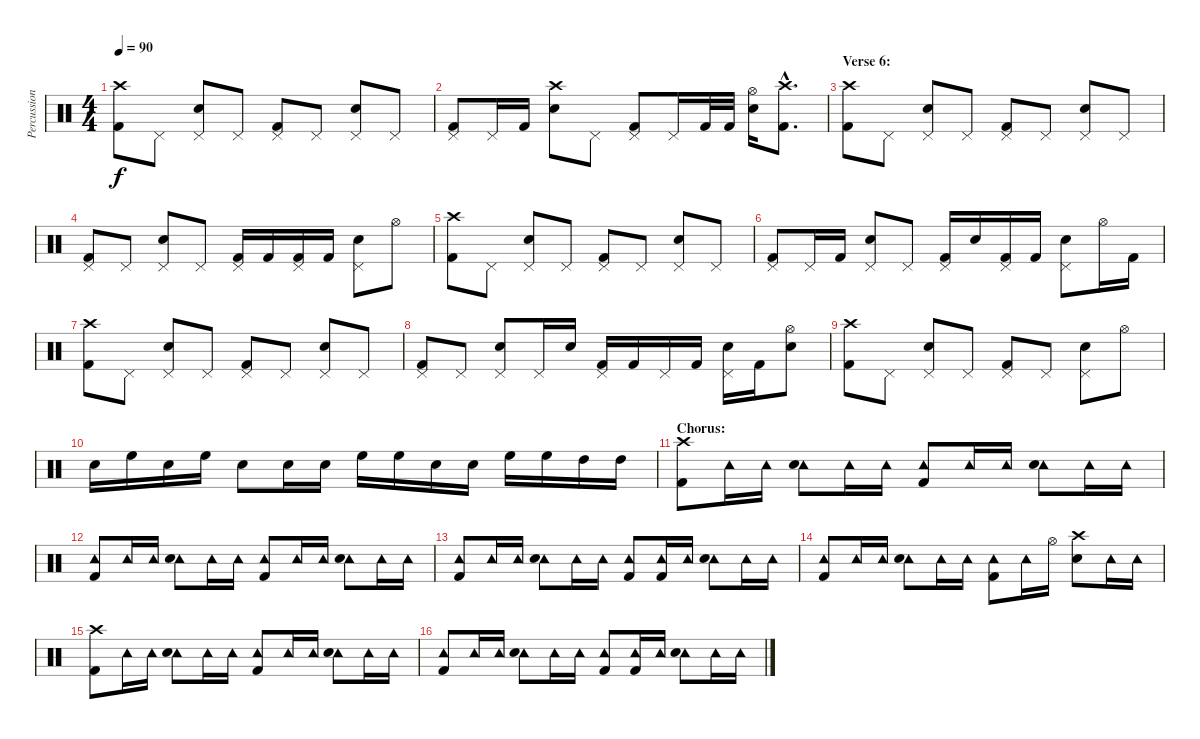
\track ("Percussion" "Percussion") {instrument percussion}
\staff {score}
\articulation defaults
\ts (4 4)
\tempo 90
\clef neutral
\ks c
("Crash high (hit)" "Kick (hit) 2").8{dy f} "Pedal Hi-Hat (hit)".8 ("Pedal Hi-Hat (hit)" "Electric Snare (hit)").8 "Pedal Hi-Hat (hit)".8 ("Pedal Hi-Hat (hit)" "Kick (hit) 2").8 "Pedal Hi-Hat (hit)".8 ("Pedal Hi-Hat (hit)" "Electric Snare (hit)").8 "Pedal Hi-Hat (hit)".8 |
("Pedal Hi-Hat (hit)" "Kick (hit) 2").8 "Pedal Hi-Hat (hit)".16 "Kick (hit) 2".16 ("Crash high (hit)" "Electric Snare (hit)").8 "Pedal Hi-Hat (hit)".8 ("Pedal Hi-Hat (hit)" "Kick (hit) 2").8 "Pedal Hi-Hat (hit)".16 "Kick (hit) 2".32 "Kick (hit) 2".32 ("Hi-Hat (open)" "Electric Snare (hit)").16 ("Crash high (hit)"{hac} "Kick (hit) 2"{hac}).8{d} |
\section ("" "Verse 6:")
("Crash high (hit)" "Kick (hit) 2").8 "Pedal Hi-Hat (hit)".8 ("Pedal Hi-Hat (hit)" "Electric Snare (hit)").8 "Pedal Hi-Hat (hit)".8 ("Pedal Hi-Hat (hit)" "Kick (hit) 2").8 "Pedal Hi-Hat (hit)".8 ("Pedal Hi-Hat (hit)" "Electric Snare (hit)").8 "Pedal Hi-Hat (hit)".8 |
("Pedal Hi-Hat (hit)" "Kick (hit) 2").8 "Pedal Hi-Hat (hit)".8 ("Pedal Hi-Hat (hit)" "Electric Snare (hit)").8 "Pedal Hi-Hat (hit)".8 ("Pedal Hi-Hat (hit)" "Kick (hit) 2").16 "Kick (hit) 2".16 ("Pedal Hi-Hat (hit)" "Kick (hit) 2").16 "Kick (hit) 2".16 ("Pedal Hi-Hat (hit)" "Electric Snare (hit)").8 "Hi-Hat (open)".8 |
("Crash high (hit)" "Kick (hit) 2").8 "Pedal Hi-Hat (hit)".8 ("Pedal Hi-Hat (hit)" "Electric Snare (hit)").8 "Pedal Hi-Hat (hit)".8 ("Pedal Hi-Hat (hit)" "Kick (hit) 2").8 "Pedal Hi-Hat (hit)".8 ("Pedal Hi-Hat (hit)" "Electric Snare (hit)").8 "Pedal Hi-Hat (hit)".8 |
("Pedal Hi-Hat (hit)" "Kick (hit) 2").8 "Pedal Hi-Hat (hit)".16 "Kick (hit) 2".16 ("Pedal Hi-Hat (hit)" "Electric Snare (hit)").8 "Pedal Hi-Hat (hit)".8 ("Pedal Hi-Hat (hit)" "Kick (hit) 2").16 "Electric Snare (hit)".16 ("Pedal Hi-Hat (hit)" "Kick (hit) 2").16 "Kick (hit) 2".16 ("Pedal Hi-Hat (hit)" "Electric Snare (hit)").8 "Hi-Hat (open)".16 "Kick (hit) 2".16 |
("Crash high (hit)" "Kick (hit) 2").8 "Pedal Hi-Hat (hit)".8 ("Pedal Hi-Hat (hit)" "Electric Snare (hit)").8 "Pedal Hi-Hat (hit)".8 ("Pedal Hi-Hat (hit)" "Kick (hit) 2").8 "Pedal Hi-Hat (hit)".8 ("Pedal Hi-Hat (hit)" "Electric Snare (hit)").8 "Pedal Hi-Hat (hit)".8 |
("Pedal Hi-Hat (hit)" "Kick (hit) 2").8 "Pedal Hi-Hat (hit)".8 ("Pedal Hi-Hat (hit)" "Electric Snare (hit)").8 "Pedal Hi-Hat (hit)".16 "Electric Snare (hit)".16 ("Pedal Hi-Hat (hit)" "Kick (hit) 2").16 "Kick (hit) 2".16 "Pedal Hi-Hat (hit)".16 "Kick (hit) 2".16 ("Pedal Hi-Hat (hit)" "Electric Snare (hit)").16 "Kick (hit) 2".16 ("Hi-Hat (open)" "Electric Snare (hit)").8 |
("Crash high (hit)" "Kick (hit) 2").8 "Pedal Hi-Hat (hit)".8 ("Pedal Hi-Hat (hit)" "Electric Snare (hit)").8 "Pedal Hi-Hat (hit)".8 ("Pedal Hi-Hat (hit)" "Kick (hit) 2").8 "Pedal Hi-Hat (hit)".8 ("Pedal Hi-Hat (hit)" "Electric Snare (hit)").8 "Hi-Hat (open)".8 |
"Electric Snare (hit)".16 "High Floor Tom (hit)".16 "Electric Snare (hit)".16 "High Floor Tom (hit)".16 "Electric Snare (hit)".8 "Electric Snare (hit)".16 "Electric Snare (hit)".16 "High Floor Tom (hit)".16 "High Floor Tom (hit)".16 "Electric Snare (hit)".16 "Electric Snare (hit)".16 "High Floor Tom (hit)".16 "High Floor Tom (hit)".16 "High Tom (hit)".16 "High Tom (hit)".16 |
\section ("" "Chorus:")
("Crash high (hit)" "Kick (hit) 2").8 "Tambourine (hit)".16 "Tambourine (hit)".16 ("Tambourine (hit)" "Electric Snare (hit)").8 "Tambourine (hit)".16 "Tambourine (hit)".16 ("Tambourine (hit)" "Kick (hit) 2").8 "Tambourine (hit)".16 "Tambourine (hit)".16 ("Tambourine (hit)" "Electric Snare (hit)").8 "Tambourine (hit)".16 "Tambourine (hit)".16 |
("Tambourine (hit)" "Kick (hit) 2").8 "Tambourine (hit)".16 "Tambourine (hit)".16 ("Tambourine (hit)" "Electric Snare (hit)").8 "Tambourine (hit)".16 "Tambourine (hit)".16 ("Tambourine (hit)" "Kick (hit) 2").8 "Tambourine (hit)".16 "Tambourine (hit)".16 ("Tambourine (hit)" "Electric Snare (hit)").8 "Tambourine (hit)".16 "Tambourine (hit)".16 |
("Tambourine (hit)" "Kick (hit) 2").8 "Tambourine (hit)".16 "Tambourine (hit)".16 ("Tambourine (hit)" "Electric Snare (hit)").8 "Tambourine (hit)".16 "Tambourine (hit)".16 ("Tambourine (hit)" "Kick (hit) 2").8 ("Tambourine (hit)" "Kick (hit) 2").16 "Tambourine (hit)".16 ("Tambourine (hit)" "Electric Snare (hit)").8 "Tambourine (hit)".16 "Tambourine (hit)".16 |
("Tambourine (hit)" "Kick (hit) 2").8 "Tambourine (hit)".16 "Tambourine (hit)".16 ("Tambourine (hit)" "Electric Snare (hit)").8 "Tambourine (hit)".16 "Tambourine (hit)".16 ("Tambourine (hit)" "Kick (hit) 2").8 "Tambourine (hit)".16 "Hi-Hat (open)".16 ("Crash high (hit)" "Electric Snare (hit)").8 "Tambourine (hit)".16 "Tambourine (hit)".16 |
("Crash high (hit)" "Kick (hit) 2").8 "Tambourine (hit)".16 "Tambourine (hit)".16 ("Tambourine (hit)" "Electric Snare (hit)").8 "Tambourine (hit)".16 "Tambourine (hit)".16 ("Tambourine (hit)" "Kick (hit) 2").8 "Tambourine (hit)".16 "Tambourine (hit)".16 ("Tambourine (hit)" "Electric Snare (hit)").8 "Tambourine (hit)".16 "Tambourine (hit)".16 |
("Tambourine (hit)" "Kick (hit) 2").8 "Tambourine (hit)".16 "Tambourine (hit)".16 ("Tambourine (hit)" "Electric Snare (hit)").8 "Tambourine (hit)".16 "Tambourine (hit)".16 ("Tambourine (hit)" "Kick (hit) 2").8 ("Tambourine (hit)" "Kick (hit) 2").16 "Tambourine (hit)".16 ("Tambourine (hit)" "Electric Snare (hit)").8 "Tambourine (hit)".16 "Tambourine (hit)".16
